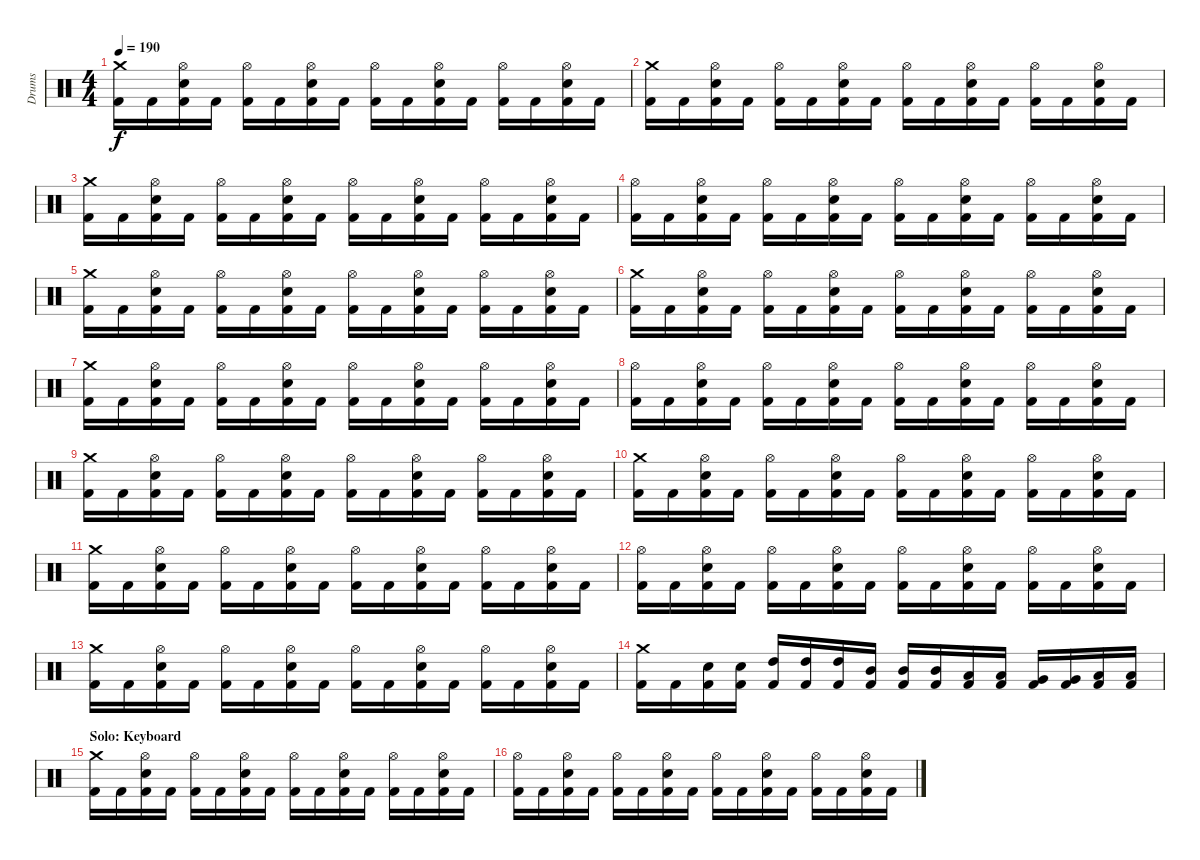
\track ("Drums" "Drums") {instrument percussion}
\staff {score}
\articulation defaults
\ts (4 4)
\tempo 190
\clef neutral
\ks c
("Crash medium (hit)" "Kick (hit) 2").16{dy f} "Kick (hit) 2".16 ("Hi-Hat (open)" "Snare (hit) 2" "Kick (hit) 2").16 "Kick (hit) 2".16 ("Hi-Hat (open)" "Kick (hit) 2").16 "Kick (hit) 2".16 ("Hi-Hat (open)" "Snare (hit) 2" "Kick (hit) 2").16 "Kick (hit) 2".16 ("Hi-Hat (open)" "Kick (hit) 2").16 "Kick (hit) 2".16 ("Hi-Hat (open)" "Snare (hit) 2" "Kick (hit) 2").16 "Kick (hit) 2".16 ("Hi-Hat (open)" "Kick (hit) 2").16 "Kick (hit) 2".16 ("Hi-Hat (open)" "Snare (hit) 2" "Kick (hit) 2").16 "Kick (hit) 2".16 |
("Crash medium (hit)" "Kick (hit) 2").16 "Kick (hit) 2".16 ("Hi-Hat (open)" "Snare (hit) 2" "Kick (hit) 2").16 "Kick (hit) 2".16 ("Hi-Hat (open)" "Kick (hit) 2").16 "Kick (hit) 2".16 ("Hi-Hat (open)" "Snare (hit) 2" "Kick (hit) 2").16 "Kick (hit) 2".16 ("Hi-Hat (open)" "Kick (hit) 2").16 "Kick (hit) 2".16 ("Hi-Hat (open)" "Snare (hit) 2" "Kick (hit) 2").16 "Kick (hit) 2".16 ("Hi-Hat (open)" "Kick (hit) 2").16 "Kick (hit) 2".16 ("Hi-Hat (open)" "Snare (hit) 2" "Kick (hit) 2").16 "Kick (hit) 2".16 |
("Crash medium (hit)" "Kick (hit) 2").16 "Kick (hit) 2".16 ("Hi-Hat (open)" "Snare (hit) 2" "Kick (hit) 2").16 "Kick (hit) 2".16 ("Hi-Hat (open)" "Kick (hit) 2").16 "Kick (hit) 2".16 ("Hi-Hat (open)" "Snare (hit) 2" "Kick (hit) 2").16 "Kick (hit) 2".16 ("Hi-Hat (open)" "Kick (hit) 2").16 "Kick (hit) 2".16 ("Hi-Hat (open)" "Snare (hit) 2" "Kick (hit) 2").16 "Kick (hit) 2".16 ("Hi-Hat (open)" "Kick (hit) 2").16 "Kick (hit) 2".16 ("Hi-Hat (open)" "Snare (hit) 2" "Kick (hit) 2").16 "Kick (hit) 2".16 |
("Hi-Hat (open)" "Kick (hit) 2").16 "Kick (hit) 2".16 ("Hi-Hat (open)" "Snare (hit) 2" "Kick (hit) 2").16 "Kick (hit) 2".16 ("Hi-Hat (open)" "Kick (hit) 2").16 "Kick (hit) 2".16 ("Hi-Hat (open)" "Snare (hit) 2" "Kick (hit) 2").16 "Kick (hit) 2".16 ("Hi-Hat (open)" "Kick (hit) 2").16 "Kick (hit) 2".16 ("Hi-Hat (open)" "Snare (hit) 2" "Kick (hit) 2").16 "Kick (hit) 2".16 ("Hi-Hat (open)" "Kick (hit) 2").16 "Kick (hit) 2".16 ("Hi-Hat (open)" "Snare (hit) 2" "Kick (hit) 2").16 "Kick (hit) 2".16 |
("Crash medium (hit)" "Kick (hit) 2").16 "Kick (hit) 2".16 ("Hi-Hat (open)" "Snare (hit) 2" "Kick (hit) 2").16 "Kick (hit) 2".16 ("Hi-Hat (open)" "Kick (hit) 2").16 "Kick (hit) 2".16 ("Hi-Hat (open)" "Snare (hit) 2" "Kick (hit) 2").16 "Kick (hit) 2".16 ("Hi-Hat (open)" "Kick (hit) 2").16 "Kick (hit) 2".16 ("Hi-Hat (open)" "Snare (hit) 2" "Kick (hit) 2").16 "Kick (hit) 2".16 ("Hi-Hat (open)" "Kick (hit) 2").16 "Kick (hit) 2".16 ("Hi-Hat (open)" "Snare (hit) 2" "Kick (hit) 2").16 "Kick (hit) 2".16 |
("Crash medium (hit)" "Kick (hit) 2").16 "Kick (hit) 2".16 ("Hi-Hat (open)" "Snare (hit) 2" "Kick (hit) 2").16 "Kick (hit) 2".16 ("Hi-Hat (open)" "Kick (hit) 2").16 "Kick (hit) 2".16 ("Hi-Hat (open)" "Snare (hit) 2" "Kick (hit) 2").16 "Kick (hit) 2".16 ("Hi-Hat (open)" "Kick (hit) 2").16 "Kick (hit) 2".16 ("Hi-Hat (open)" "Snare (hit) 2" "Kick (hit) 2").16 "Kick (hit) 2".16 ("Hi-Hat (open)" "Kick (hit) 2").16 "Kick (hit) 2".16 ("Hi-Hat (open)" "Snare (hit) 2" "Kick (hit) 2").16 "Kick (hit) 2".16 |
("Crash medium (hit)" "Kick (hit) 2").16 "Kick (hit) 2".16 ("Hi-Hat (open)" "Snare (hit) 2" "Kick (hit) 2").16 "Kick (hit) 2".16 ("Hi-Hat (open)" "Kick (hit) 2").16 "Kick (hit) 2".16 ("Hi-Hat (open)" "Snare (hit) 2" "Kick (hit) 2").16 "Kick (hit) 2".16 ("Hi-Hat (open)" "Kick (hit) 2").16 "Kick (hit) 2".16 ("Hi-Hat (open)" "Snare (hit) 2" "Kick (hit) 2").16 "Kick (hit) 2".16 ("Hi-Hat (open)" "Kick (hit) 2").16 "Kick (hit) 2".16 ("Hi-Hat (open)" "Snare (hit) 2" "Kick (hit) 2").16 "Kick (hit) 2".16 |
("Hi-Hat (open)" "Kick (hit) 2").16 "Kick (hit) 2".16 ("Hi-Hat (open)" "Snare (hit) 2" "Kick (hit) 2").16 "Kick (hit) 2".16 ("Hi-Hat (open)" "Kick (hit) 2").16 "Kick (hit) 2".16 ("Hi-Hat (open)" "Snare (hit) 2" "Kick (hit) 2").16 "Kick (hit) 2".16 ("Hi-Hat (open)" "Kick (hit) 2").16 "Kick (hit) 2".16 ("Hi-Hat (open)" "Snare (hit) 2" "Kick (hit) 2").16 "Kick (hit) 2".16 ("Hi-Hat (open)" "Kick (hit) 2").16 "Kick (hit) 2".16 ("Hi-Hat (open)" "Snare (hit) 2" "Kick (hit) 2").16 "Kick (hit) 2".16 |
("Crash medium (hit)" "Kick (hit) 2").16 "Kick (hit) 2".16 ("Hi-Hat (open)" "Snare (hit) 2" "Kick (hit) 2").16 "Kick (hit) 2".16 ("Hi-Hat (open)" "Kick (hit) 2").16 "Kick (hit) 2".16 ("Hi-Hat (open)" "Snare (hit) 2" "Kick (hit) 2").16 "Kick (hit) 2".16 ("Hi-Hat (open)" "Kick (hit) 2").16 "Kick (hit) 2".16 ("Hi-Hat (open)" "Snare (hit) 2" "Kick (hit) 2").16 "Kick (hit) 2".16 ("Hi-Hat (open)" "Kick (hit) 2").16 "Kick (hit) 2".16 ("Hi-Hat (open)" "Snare (hit) 2" "Kick (hit) 2").16 "Kick (hit) 2".16 |
("Crash medium (hit)" "Kick (hit) 2").16 "Kick (hit) 2".16 ("Hi-Hat (open)" "Snare (hit) 2" "Kick (hit) 2").16 "Kick (hit) 2".16 ("Hi-Hat (open)" "Kick (hit) 2").16 "Kick (hit) 2".16 ("Hi-Hat (open)" "Snare (hit) 2" "Kick (hit) 2").16 "Kick (hit) 2".16 ("Hi-Hat (open)" "Kick (hit) 2").16 "Kick (hit) 2".16 ("Hi-Hat (open)" "Snare (hit) 2" "Kick (hit) 2").16 "Kick (hit) 2".16 ("Hi-Hat (open)" "Kick (hit) 2").16 "Kick (hit) 2".16 ("Hi-Hat (open)" "Snare (hit) 2" "Kick (hit) 2").16 "Kick (hit) 2".16 |
("Crash medium (hit)" "Kick (hit) 2").16 "Kick (hit) 2".16 ("Hi-Hat (open)" "Snare (hit) 2" "Kick (hit) 2").16 "Kick (hit) 2".16 ("Hi-Hat (open)" "Kick (hit) 2").16 "Kick (hit) 2".16 ("Hi-Hat (open)" "Snare (hit) 2" "Kick (hit) 2").16 "Kick (hit) 2".16 ("Hi-Hat (open)" "Kick (hit) 2").16 "Kick (hit) 2".16 ("Hi-Hat (open)" "Snare (hit) 2" "Kick (hit) 2").16 "Kick (hit) 2".16 ("Hi-Hat (open)" "Kick (hit) 2").16 "Kick (hit) 2".16 ("Hi-Hat (open)" "Snare (hit) 2" "Kick (hit) 2").16 "Kick (hit) 2".16 |
("Hi-Hat (open)" "Kick (hit) 2").16 "Kick (hit) 2".16 ("Hi-Hat (open)" "Snare (hit) 2" "Kick (hit) 2").16 "Kick (hit) 2".16 ("Hi-Hat (open)" "Kick (hit) 2").16 "Kick (hit) 2".16 ("Hi-Hat (open)" "Snare (hit) 2" "Kick (hit) 2").16 "Kick (hit) 2".16 ("Hi-Hat (open)" "Kick (hit) 2").16 "Kick (hit) 2".16 ("Hi-Hat (open)" "Snare (hit) 2" "Kick (hit) 2").16 "Kick (hit) 2".16 ("Hi-Hat (open)" "Kick (hit) 2").16 "Kick (hit) 2".16 ("Hi-Hat (open)" "Snare (hit) 2" "Kick (hit) 2").16 "Kick (hit) 2".16 |
("Crash medium (hit)" "Kick (hit) 2").16 "Kick (hit) 2".16 ("Hi-Hat (open)" "Snare (hit) 2" "Kick (hit) 2").16 "Kick (hit) 2".16 ("Hi-Hat (open)" "Kick (hit) 2").16 "Kick (hit) 2".16 ("Hi-Hat (open)" "Snare (hit) 2" "Kick (hit) 2").16 "Kick (hit) 2".16 ("Hi-Hat (open)" "Kick (hit) 2").16 "Kick (hit) 2".16 ("Hi-Hat (open)" "Snare (hit) 2" "Kick (hit) 2").16 "Kick (hit) 2".16 ("Hi-Hat (open)" "Kick (hit) 2").16 "Kick (hit) 2".16 ("Hi-Hat (open)" "Snare (hit) 2" "Kick (hit) 2").16 "Kick (hit) 2".16 |
("Crash medium (hit)" "Kick (hit) 2").16 "Kick (hit) 2".16 ("Snare (hit) 2" "Kick (hit) 2").16 ("Snare (hit) 2" "Kick (hit) 2").16 ("High Tom (hit)" "Kick (hit) 2").16 ("High Tom (hit)" "Kick (hit) 2").16 ("High Tom (hit)" "Kick (hit) 2").16 ("Mid Tom (hit)" "Kick (hit) 2").16 ("Mid Tom (hit)" "Kick (hit) 2").16 ("Mid Tom (hit)" "Kick (hit) 2").16 ("Low Tom (hit)" "Kick (hit) 2").16 ("Low Tom (hit)" "Kick (hit) 2").16 ("Very Low Tom (hit)" "Kick (hit) 2").16 ("Very Low Tom (hit)" "Kick (hit) 2").16 ("Low Floor Tom (hit)" "Kick (hit) 2").16 ("Low Floor Tom (hit)" "Kick (hit) 2").16 |
\section ("" "Solo: Keyboard")
("Crash medium (hit)" "Kick (hit) 2").16 "Kick (hit) 2".16 ("Hi-Hat (open)" "Snare (hit) 2" "Kick (hit) 2").16 "Kick (hit) 2".16 ("Hi-Hat (open)" "Kick (hit) 2").16 "Kick (hit) 2".16 ("Hi-Hat (open)" "Snare (hit) 2" "Kick (hit) 2").16 "Kick (hit) 2".16 ("Hi-Hat (open)" "Kick (hit) 2").16 "Kick (hit) 2".16 ("Hi-Hat (open)" "Snare (hit) 2" "Kick (hit) 2").16 "Kick (hit) 2".16 ("Hi-Hat (open)" "Kick (hit) 2").16 "Kick (hit) 2".16 ("Hi-Hat (open)" "Snare (hit) 2" "Kick (hit) 2").16 "Kick (hit) 2".16 |
("Hi-Hat (open)" "Kick (hit) 2").16 "Kick (hit) 2".16 ("Hi-Hat (open)" "Snare (hit) 2" "Kick (hit) 2").16 "Kick (hit) 2".16 ("Hi-Hat (open)" "Kick (hit) 2").16 "Kick (hit) 2".16 ("Hi-Hat (open)" "Snare (hit) 2" "Kick (hit) 2").16 "Kick (hit) 2".16 ("Hi-Hat (open)" "Kick (hit) 2").16 "Kick (hit) 2".16 ("Hi-Hat (open)" "Snare (hit) 2" "Kick (hit) 2").16 "Kick (hit) 2".16 ("Hi-Hat (open)" "Kick (hit) 2").16 "Kick (hit) 2".16 ("Hi-Hat (open)" "Snare (hit) 2" "Kick (hit) 2").16 "Kick (hit) 2".16
